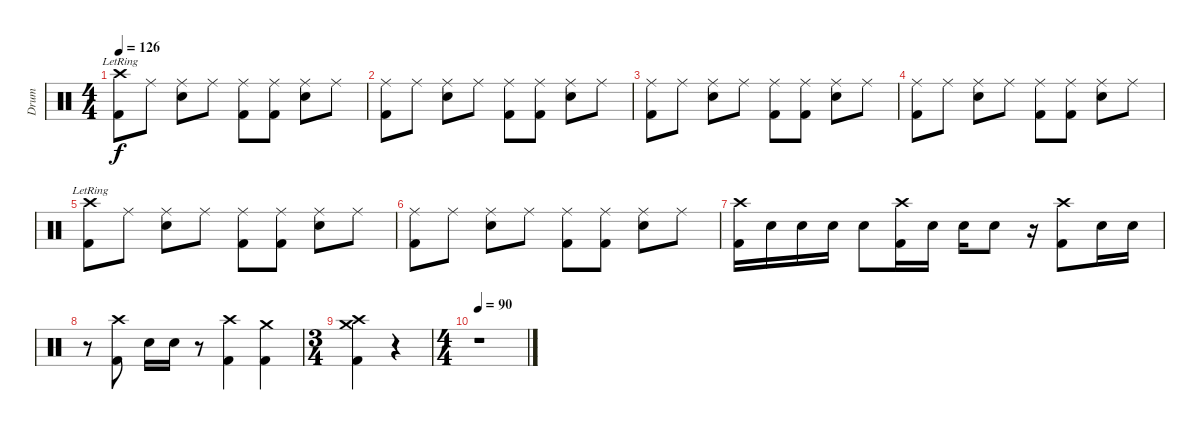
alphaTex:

\track ("Drum" "Drum") {instrument percussion}
\staff {score}
\articulation defaults
\ts (4 4)
\tempo 126
\clef neutral
\ks c
("Crash high (hit)"{lr} "Kick (hit) 2").8{dy f} "Ride (middle)".8 ("Ride (middle)" "Snare (hit) 2").8 "Ride (middle)".8 ("Ride (middle)" "Kick (hit) 2").8 ("Ride (middle)" "Kick (hit) 2").8 ("Ride (middle)" "Snare (hit) 2").8 "Ride (middle)".8 |
("Ride (middle)" "Kick (hit) 2").8 "Ride (middle)".8 ("Ride (middle)" "Snare (hit) 2").8 "Ride (middle)".8 ("Ride (middle)" "Kick (hit) 2").8 ("Ride (middle)" "Kick (hit) 2").8 ("Ride (middle)" "Snare (hit) 2").8 "Ride (middle)".8 |
("Ride (middle)" "Kick (hit) 2").8 "Ride (middle)".8 ("Ride (middle)" "Snare (hit) 2").8 "Ride (middle)".8 ("Ride (middle)" "Kick (hit) 2").8 ("Ride (middle)" "Kick (hit) 2").8 ("Ride (middle)" "Snare (hit) 2").8 "Ride (middle)".8 |
("Ride (middle)" "Kick (hit) 2").8 "Ride (middle)".8 ("Ride (middle)" "Snare (hit) 2").8 "Ride (middle)".8 ("Ride (middle)" "Kick (hit) 2").8 ("Ride (middle)" "Kick (hit) 2").8 ("Ride (middle)" "Snare (hit) 2").8 "Ride (middle)".8 |
("Crash high (hit)"{lr} "Kick (hit) 2").8 "Ride (middle)".8 ("Ride (middle)" "Snare (hit) 2").8 "Ride (middle)".8 ("Ride (middle)" "Kick (hit) 2").8 ("Ride (middle)" "Kick (hit) 2").8 ("Ride (middle)" "Snare (hit) 2").8 "Ride (middle)".8 |
("Ride (middle)" "Kick (hit) 2").8 "Ride (middle)".8 ("Ride (middle)" "Snare (hit) 2").8 "Ride (middle)".8 ("Ride (middle)" "Kick (hit) 2").8 ("Ride (middle)" "Kick (hit) 2").8 ("Ride (middle)" "Snare (hit) 2").8 "Ride (middle)".8 |
("Crash high (hit)" "Kick (hit) 2").16 "Snare (hit) 2".16 "Snare (hit) 2".16 "Snare (hit) 2".16 "Snare (hit) 2".8 ("Crash high (hit)" "Kick (hit) 2").16 "Snare (hit) 2".16 "Snare (hit) 2".16 "Snare (hit) 2".8 r.16 ("Crash high (hit)" "Kick (hit) 2").8 "Snare (hit) 2".16 "Snare (hit) 2".16 |
r.8 ("Crash high (hit)" "Kick (hit) 2").8 "Snare (hit) 2".16 "Snare (hit) 2".16 r.8 ("Crash high (hit)" "Kick (hit) 2").4 ("Crash medium (hit)" "Kick (hit) 2").4 |
\ts (3 4)
("Crash high (hit)" "Crash medium (hit)" "Kick (hit) 2").4 r.4 |
\ts (4 4)
\tempo 90
r.1
